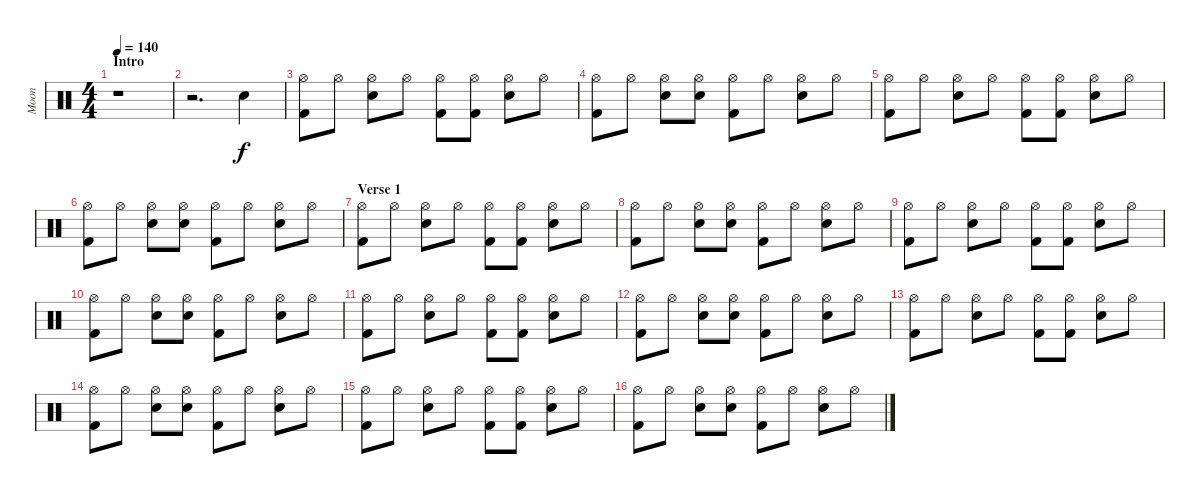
\track ("Moon" "Moon") {instrument percussion}
\staff {score}
\articulation defaults
\ts (4 4)
\section ("" "Intro")
\tempo 140
\clef neutral
\ks c
r.1{dy f} |
r.2{d} "Snare (hit) 2".4 |
("Hi-Hat (open)" "Kick (hit) 2").8 "Hi-Hat (open)".8 ("Hi-Hat (open)" "Snare (hit) 2").8 "Hi-Hat (open)".8 ("Hi-Hat (open)" "Kick (hit) 2").8 ("Hi-Hat (open)" "Kick (hit) 2").8 ("Hi-Hat (open)" "Snare (hit) 2").8 "Hi-Hat (open)".8 |
("Hi-Hat (open)" "Kick (hit) 2").8 "Hi-Hat (open)".8 ("Hi-Hat (open)" "Snare (hit) 2").8 ("Hi-Hat (open)" "Snare (hit) 2").8 ("Hi-Hat (open)" "Kick (hit) 2").8 "Hi-Hat (open)".8 ("Hi-Hat (open)" "Snare (hit) 2").8 "Hi-Hat (open)".8 |
("Hi-Hat (open)" "Kick (hit) 2").8 "Hi-Hat (open)".8 ("Hi-Hat (open)" "Snare (hit) 2").8 "Hi-Hat (open)".8 ("Hi-Hat (open)" "Kick (hit) 2").8 ("Hi-Hat (open)" "Kick (hit) 2").8 ("Hi-Hat (open)" "Snare (hit) 2").8 "Hi-Hat (open)".8 |
("Hi-Hat (open)" "Kick (hit) 2").8 "Hi-Hat (open)".8 ("Hi-Hat (open)" "Snare (hit) 2").8 ("Hi-Hat (open)" "Snare (hit) 2").8 ("Hi-Hat (open)" "Kick (hit) 2").8 "Hi-Hat (open)".8 ("Hi-Hat (open)" "Snare (hit) 2").8 "Hi-Hat (open)".8 |
\section ("" "Verse 1")
("Hi-Hat (open)" "Kick (hit) 2").8 "Hi-Hat (open)".8 ("Hi-Hat (open)" "Snare (hit) 2").8 "Hi-Hat (open)".8 ("Hi-Hat (open)" "Kick (hit) 2").8 ("Hi-Hat (open)" "Kick (hit) 2").8 ("Hi-Hat (open)" "Snare (hit) 2").8 "Hi-Hat (open)".8 |
("Hi-Hat (open)" "Kick (hit) 2").8 "Hi-Hat (open)".8 ("Hi-Hat (open)" "Snare (hit) 2").8 ("Hi-Hat (open)" "Snare (hit) 2").8 ("Hi-Hat (open)" "Kick (hit) 2").8 "Hi-Hat (open)".8 ("Hi-Hat (open)" "Snare (hit) 2").8 "Hi-Hat (open)".8 |
("Hi-Hat (open)" "Kick (hit) 2").8 "Hi-Hat (open)".8 ("Hi-Hat (open)" "Snare (hit) 2").8 "Hi-Hat (open)".8 ("Hi-Hat (open)" "Kick (hit) 2").8 ("Hi-Hat (open)" "Kick (hit) 2").8 ("Hi-Hat (open)" "Snare (hit) 2").8 "Hi-Hat (open)".8 |
("Hi-Hat (open)" "Kick (hit) 2").8 "Hi-Hat (open)".8 ("Hi-Hat (open)" "Snare (hit) 2").8 ("Hi-Hat (open)" "Snare (hit) 2").8 ("Hi-Hat (open)" "Kick (hit) 2").8 "Hi-Hat (open)".8 ("Hi-Hat (open)" "Snare (hit) 2").8 "Hi-Hat (open)".8 |
("Hi-Hat (open)" "Kick (hit) 2").8 "Hi-Hat (open)".8 ("Hi-Hat (open)" "Snare (hit) 2").8 "Hi-Hat (open)".8 ("Hi-Hat (open)" "Kick (hit) 2").8 ("Hi-Hat (open)" "Kick (hit) 2").8 ("Hi-Hat (open)" "Snare (hit) 2").8 "Hi-Hat (open)".8 |
("Hi-Hat (open)" "Kick (hit) 2").8 "Hi-Hat (open)".8 ("Hi-Hat (open)" "Snare (hit) 2").8 ("Hi-Hat (open)" "Snare (hit) 2").8 ("Hi-Hat (open)" "Kick (hit) 2").8 "Hi-Hat (open)".8 ("Hi-Hat (open)" "Snare (hit) 2").8 "Hi-Hat (open)".8 |
("Hi-Hat (open)" "Kick (hit) 2").8 "Hi-Hat (open)".8 ("Hi-Hat (open)" "Snare (hit) 2").8 "Hi-Hat (open)".8 ("Hi-Hat (open)" "Kick (hit) 2").8 ("Hi-Hat (open)" "Kick (hit) 2").8 ("Hi-Hat (open)" "Snare (hit) 2").8 "Hi-Hat (open)".8 |
("Hi-Hat (open)" "Kick (hit) 2").8 "Hi-Hat (open)".8 ("Hi-Hat (open)" "Snare (hit) 2").8 ("Hi-Hat (open)" "Snare (hit) 2").8 ("Hi-Hat (open)" "Kick (hit) 2").8 "Hi-Hat (open)".8 ("Hi-Hat (open)" "Snare (hit) 2").8 "Hi-Hat (open)".8 |
("Hi-Hat (open)" "Kick (hit) 2").8 "Hi-Hat (open)".8 ("Hi-Hat (open)" "Snare (hit) 2").8 "Hi-Hat (open)".8 ("Hi-Hat (open)" "Kick (hit) 2").8 ("Hi-Hat (open)" "Kick (hit) 2").8 ("Hi-Hat (open)" "Snare (hit) 2").8 "Hi-Hat (open)".8 |
("Hi-Hat (open)" "Kick (hit) 2").8 "Hi-Hat (open)".8 ("Hi-Hat (open)" "Snare (hit) 2").8 ("Hi-Hat (open)" "Snare (hit) 2").8 ("Hi-Hat (open)" "Kick (hit) 2").8 "Hi-Hat (open)".8 ("Hi-Hat (open)" "Snare (hit) 2").8 "Hi-Hat (open)".8
